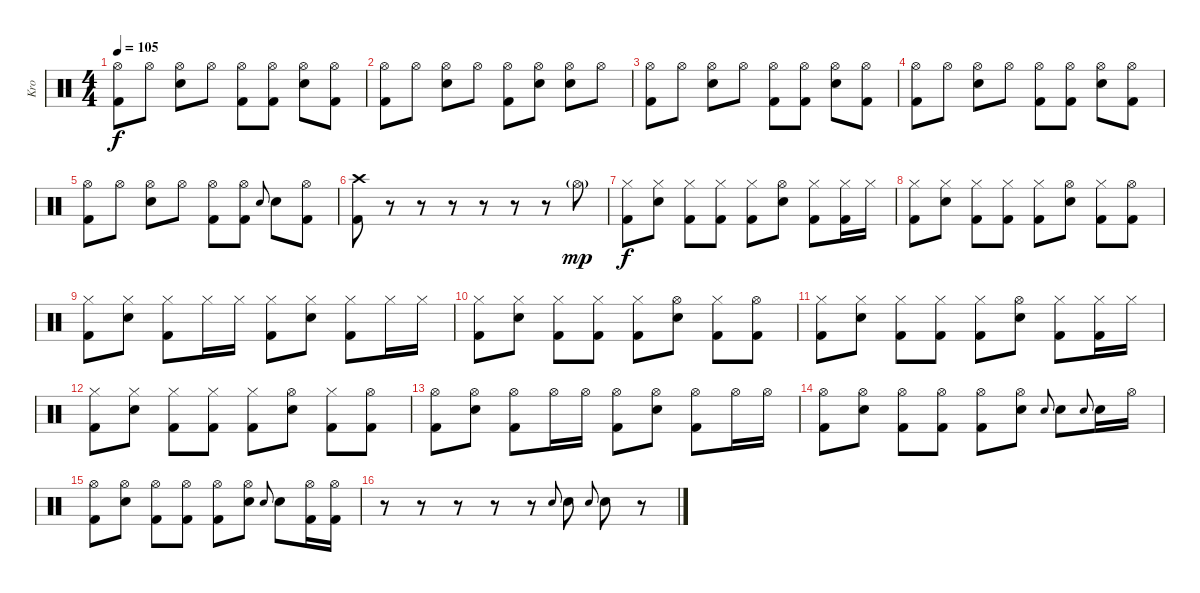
\track ("Kro" "Kro") {instrument percussion}
\staff {score}
\articulation defaults
\ts (4 4)
\tempo 105
\clef neutral
\ks c
("Hi-Hat (open)" "Kick (hit) 2").8{dy f} "Hi-Hat (open)".8 ("Hi-Hat (open)" "Electric Snare (hit)").8 "Hi-Hat (open)".8 ("Hi-Hat (open)" "Kick (hit) 2").8 ("Hi-Hat (open)" "Kick (hit) 2").8 ("Hi-Hat (open)" "Electric Snare (hit)").8 ("Hi-Hat (open)" "Kick (hit) 2").8 |
("Hi-Hat (open)" "Kick (hit) 2").8 "Hi-Hat (open)".8 ("Hi-Hat (open)" "Electric Snare (hit)").8 "Hi-Hat (open)".8 ("Hi-Hat (open)" "Kick (hit) 2").8 ("Hi-Hat (open)" "Electric Snare (hit)").8 ("Hi-Hat (open)" "Electric Snare (hit)").8 "Hi-Hat (open)".8 |
("Hi-Hat (open)" "Kick (hit) 2").8 "Hi-Hat (open)".8 ("Hi-Hat (open)" "Electric Snare (hit)").8 "Hi-Hat (open)".8 ("Hi-Hat (open)" "Kick (hit) 2").8 ("Hi-Hat (open)" "Kick (hit) 2").8 ("Hi-Hat (open)" "Electric Snare (hit)").8 ("Hi-Hat (open)" "Kick (hit) 2").8 |
("Hi-Hat (open)" "Kick (hit) 2").8 "Hi-Hat (open)".8 ("Hi-Hat (open)" "Electric Snare (hit)").8 "Hi-Hat (open)".8 ("Hi-Hat (open)" "Kick (hit) 2").8 ("Hi-Hat (open)" "Kick (hit) 2").8 ("Hi-Hat (open)" "Electric Snare (hit)").8 ("Hi-Hat (open)" "Kick (hit) 2").8 |
("Hi-Hat (open)" "Kick (hit) 2").8 "Hi-Hat (open)".8 ("Hi-Hat (open)" "Electric Snare (hit)").8 "Hi-Hat (open)".8 ("Hi-Hat (open)" "Kick (hit) 2").8 ("Hi-Hat (open)" "Kick (hit) 2").8 "Electric Snare (hit)".8{gr onbeat} "Electric Snare (hit)".8 ("Hi-Hat (open)" "Kick (hit) 2").8 |
("Crash high (hit)" "Kick (hit) 2").8 r.8 r.8 r.8 r.8 r.8 r.8 "Hi-Hat (open)"{g}.8{dy mp} |
("Hi-Hat (closed)" "Kick (hit) 2").8{dy f} ("Hi-Hat (closed)" "Electric Snare (hit)").8 ("Hi-Hat (closed)" "Kick (hit) 2").8 ("Hi-Hat (closed)" "Kick (hit) 2").8 ("Hi-Hat (closed)" "Kick (hit) 2").8 ("Hi-Hat (open)" "Electric Snare (hit)").8 ("Hi-Hat (closed)" "Kick (hit) 2").8 ("Hi-Hat (closed)" "Kick (hit) 2").16 "Hi-Hat (closed)".16 |
("Hi-Hat (closed)" "Kick (hit) 2").8 ("Hi-Hat (closed)" "Electric Snare (hit)").8 ("Hi-Hat (closed)" "Kick (hit) 2").8 ("Hi-Hat (closed)" "Kick (hit) 2").8 ("Hi-Hat (closed)" "Kick (hit) 2").8 ("Hi-Hat (open)" "Electric Snare (hit)").8 ("Hi-Hat (closed)" "Kick (hit) 2").8 ("Hi-Hat (open)" "Kick (hit) 2").8 |
("Hi-Hat (closed)" "Kick (hit) 2").8 ("Hi-Hat (closed)" "Electric Snare (hit)").8 ("Hi-Hat (closed)" "Kick (hit) 2").8 "Hi-Hat (closed)".16 "Hi-Hat (closed)".16 ("Hi-Hat (closed)" "Kick (hit) 2").8 ("Hi-Hat (closed)" "Electric Snare (hit)").8 ("Hi-Hat (closed)" "Kick (hit) 2").8 "Hi-Hat (closed)".16 "Hi-Hat (closed)".16 |
("Hi-Hat (closed)" "Kick (hit) 2").8 ("Hi-Hat (closed)" "Electric Snare (hit)").8 ("Hi-Hat (closed)" "Kick (hit) 2").8 ("Hi-Hat (closed)" "Kick (hit) 2").8 ("Hi-Hat (closed)" "Kick (hit) 2").8 ("Hi-Hat (open)" "Electric Snare (hit)").8 ("Hi-Hat (closed)" "Kick (hit) 2").8 ("Hi-Hat (open)" "Kick (hit) 2").8 |
("Hi-Hat (closed)" "Kick (hit) 2").8 ("Hi-Hat (closed)" "Electric Snare (hit)").8 ("Hi-Hat (closed)" "Kick (hit) 2").8 ("Hi-Hat (closed)" "Kick (hit) 2").8 ("Hi-Hat (closed)" "Kick (hit) 2").8 ("Hi-Hat (open)" "Electric Snare (hit)").8 ("Hi-Hat (closed)" "Kick (hit) 2").8 ("Hi-Hat (closed)" "Kick (hit) 2").16 "Hi-Hat (closed)".16 |
("Hi-Hat (closed)" "Kick (hit) 2").8 ("Hi-Hat (closed)" "Electric Snare (hit)").8 ("Hi-Hat (closed)" "Kick (hit) 2").8 ("Hi-Hat (closed)" "Kick (hit) 2").8 ("Hi-Hat (closed)" "Kick (hit) 2").8 ("Hi-Hat (open)" "Electric Snare (hit)").8 ("Hi-Hat (closed)" "Kick (hit) 2").8 ("Hi-Hat (open)" "Kick (hit) 2").8 |
("Hi-Hat (open)" "Kick (hit) 2").8 ("Hi-Hat (open)" "Electric Snare (hit)").8 ("Hi-Hat (open)" "Kick (hit) 2").8 "Hi-Hat (open)".16 "Hi-Hat (open)".16 ("Hi-Hat (open)" "Kick (hit) 2").8 ("Hi-Hat (open)" "Electric Snare (hit)").8 ("Hi-Hat (open)" "Kick (hit) 2").8 "Hi-Hat (open)".16 "Hi-Hat (open)".16 |
("Hi-Hat (open)" "Kick (hit) 2").8 ("Hi-Hat (open)" "Electric Snare (hit)").8 ("Hi-Hat (open)" "Kick (hit) 2").8 ("Hi-Hat (open)" "Kick (hit) 2").8 ("Hi-Hat (open)" "Kick (hit) 2").8 ("Hi-Hat (open)" "Electric Snare (hit)").8 "Electric Snare (hit)".8{gr onbeat} "Electric Snare (hit)".8 "Electric Snare (hit)".8{gr onbeat} "Electric Snare (hit)".16 "Hi-Hat (open)".16 |
("Hi-Hat (open)" "Kick (hit) 2").8 ("Hi-Hat (open)" "Electric Snare (hit)").8 ("Hi-Hat (open)" "Kick (hit) 2").8 ("Hi-Hat (open)" "Kick (hit) 2").8 ("Hi-Hat (open)" "Kick (hit) 2").8 ("Hi-Hat (open)" "Electric Snare (hit)").8 "Electric Snare (hit)".8{gr onbeat} "Electric Snare (hit)".8 ("Hi-Hat (open)" "Kick (hit) 2").16 ("Hi-Hat (open)" "Kick (hit) 2").16 |
r.8 r.8 r.8 r.8 r.8 "Electric Snare (hit)".8{gr onbeat} "Electric Snare (hit)".8 "Electric Snare (hit)".8{gr onbeat} "Electric Snare (hit)".8 r.8
